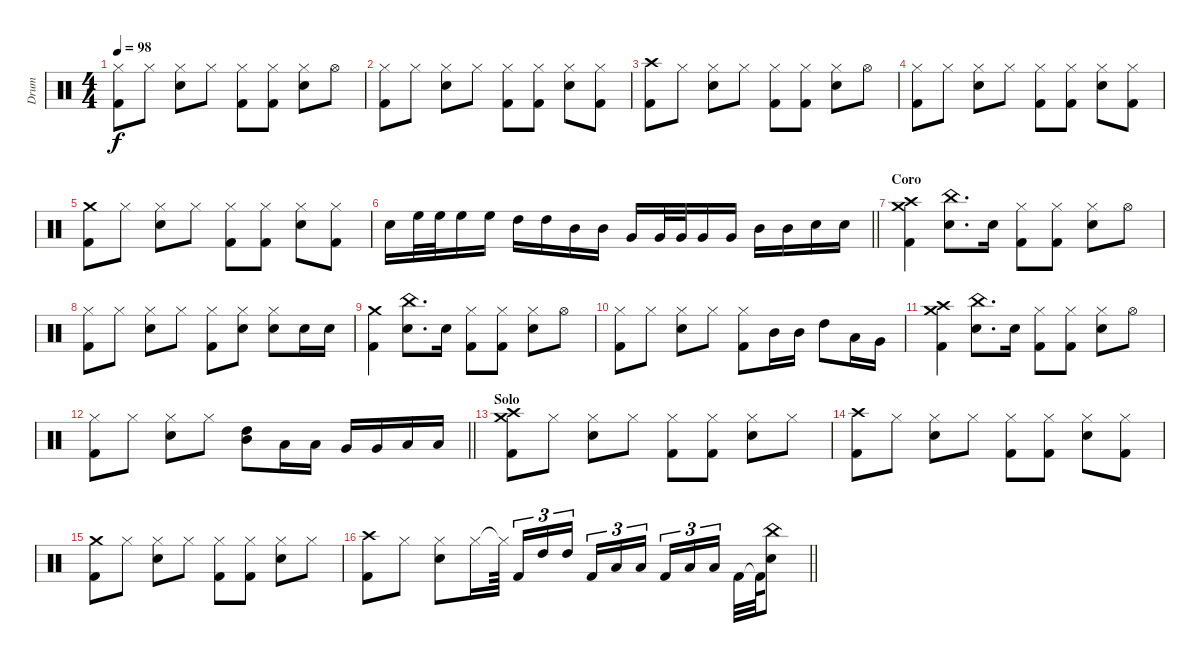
\track ("Drum" "Drum") {instrument percussion}
\staff {score}
\articulation defaults
\ts (4 4)
\tempo 98
\clef neutral
\ks c
("Hi-Hat (closed)" "Kick (hit) 2").8{dy f} "Hi-Hat (closed)".8 ("Hi-Hat (closed)" "Snare (hit) 2").8 "Hi-Hat (closed)".8 ("Hi-Hat (closed)" "Kick (hit) 2").8 ("Hi-Hat (closed)" "Kick (hit) 2").8 ("Hi-Hat (closed)" "Snare (hit) 2").8 "Hi-Hat (open)".8 |
("Hi-Hat (closed)" "Kick (hit) 2").8 "Hi-Hat (closed)".8 ("Hi-Hat (closed)" "Snare (hit) 2").8 "Hi-Hat (closed)".8 ("Hi-Hat (closed)" "Kick (hit) 2").8 ("Hi-Hat (closed)" "Kick (hit) 2").8 ("Hi-Hat (closed)" "Snare (hit) 2").8 ("Hi-Hat (closed)" "Kick (hit) 2").8 |
("Crash high (hit)" "Kick (hit) 2").8 "Hi-Hat (closed)".8 ("Hi-Hat (closed)" "Snare (hit) 2").8 "Hi-Hat (closed)".8 ("Hi-Hat (closed)" "Kick (hit) 2").8 ("Hi-Hat (closed)" "Kick (hit) 2").8 ("Hi-Hat (closed)" "Snare (hit) 2").8 "Hi-Hat (open)".8 |
("Hi-Hat (closed)" "Kick (hit) 2").8 "Hi-Hat (closed)".8 ("Hi-Hat (closed)" "Snare (hit) 2").8 "Hi-Hat (closed)".8 ("Hi-Hat (closed)" "Kick (hit) 2").8 ("Hi-Hat (closed)" "Kick (hit) 2").8 ("Hi-Hat (closed)" "Snare (hit) 2").8 ("Hi-Hat (closed)" "Kick (hit) 2").8 |
("Crash medium (hit)" "Kick (hit) 2").8 "Hi-Hat (closed)".8 ("Hi-Hat (closed)" "Snare (hit) 2").8 "Hi-Hat (closed)".8 ("Hi-Hat (closed)" "Kick (hit) 2").8 ("Hi-Hat (closed)" "Kick (hit) 2").8 ("Hi-Hat (closed)" "Snare (hit) 2").8 ("Hi-Hat (closed)" "Kick (hit) 2").8 |
\barLineRight lightlight "Snare (hit) 2".16 "High Floor Tom (hit)".32 "High Floor Tom (hit)".32 "High Floor Tom (hit)".16 "High Floor Tom (hit)".16 "High Tom (hit)".16 "High Tom (hit)".16 "Mid Tom (hit)".16 "Mid Tom (hit)".16 "Very Low Tom (hit)".16 "Very Low Tom (hit)".32 "Very Low Tom (hit)".32 "Very Low Tom (hit)".16 "Very Low Tom (hit)".16 "Mid Tom (hit)".16 "Mid Tom (hit)".16 "Snare (hit) 2".16 "Snare (hit) 2".16
|
\section ("" "Coro")
("Crash medium (hit)" "Crash high (hit)" "Kick (hit) 2").4 ("China (hit)" "Snare (hit) 2").8{d} "Snare (hit) 2".16 ("Hi-Hat (closed)" "Kick (hit) 2").8 ("Hi-Hat (closed)" "Kick (hit) 2").8 ("Hi-Hat (closed)" "Snare (hit) 2").8 "Hi-Hat (open)".8 |
("Hi-Hat (closed)" "Kick (hit) 2").8 "Hi-Hat (closed)".8 ("Hi-Hat (closed)" "Snare (hit) 2").8 "Hi-Hat (closed)".8 ("Hi-Hat (closed)" "Kick (hit) 2").8 ("Hi-Hat (closed)" "Snare (hit) 2").8 ("Hi-Hat (closed)" "Snare (hit) 2").8 "Snare (hit) 2".16 "Snare (hit) 2".16 |
("Crash medium (hit)" "Kick (hit) 2").4 ("China (hit)" "Snare (hit) 2").8{d} "Snare (hit) 2".16 ("Hi-Hat (closed)" "Kick (hit) 2").8 ("Hi-Hat (closed)" "Kick (hit) 2").8 ("Hi-Hat (closed)" "Snare (hit) 2").8 "Hi-Hat (open)".8 |
("Hi-Hat (closed)" "Kick (hit) 2").8 "Hi-Hat (closed)".8 ("Hi-Hat (closed)" "Snare (hit) 2").8 "Hi-Hat (closed)".8 ("Hi-Hat (closed)" "Kick (hit) 2").8 "Mid Tom (hit)".16 "Mid Tom (hit)".16 "High Tom (hit)".8 "Low Tom (hit)".16 "Very Low Tom (hit)".16 |
("Crash medium (hit)" "Crash high (hit)" "Kick (hit) 2").4 ("China (hit)" "Snare (hit) 2").8{d} "Snare (hit) 2".16 ("Hi-Hat (closed)" "Kick (hit) 2").8 ("Hi-Hat (closed)" "Kick (hit) 2").8 ("Hi-Hat (closed)" "Snare (hit) 2").8 "Hi-Hat (open)".8 |
\barLineRight lightlight
("Hi-Hat (closed)" "Kick (hit) 2").8 "Hi-Hat (closed)".8 ("Hi-Hat (closed)" "Snare (hit) 2").8 "Hi-Hat (closed)".8 ("High Tom (hit)" "Mid Tom (hit)").8 "Low Tom (hit)".16 "Low Tom (hit)".16 "Very Low Tom (hit)".16 "Very Low Tom (hit)".16 "Low Floor Tom (hit)".16 "Low Floor Tom (hit)".16 |
\section ("" "Solo")
("Crash medium (hit)" "Crash high (hit)" "Kick (hit) 2").8 "Hi-Hat (closed)".8 ("Hi-Hat (closed)" "Snare (hit) 2").8 "Hi-Hat (closed)".8 ("Hi-Hat (closed)" "Kick (hit) 2").8 ("Hi-Hat (closed)" "Kick (hit) 2").8 ("Hi-Hat (closed)" "Snare (hit) 2").8 "Hi-Hat (closed)".8 |
("Crash high (hit)" "Kick (hit) 2").8 "Hi-Hat (closed)".8 ("Hi-Hat (closed)" "Snare (hit) 2").8 "Hi-Hat (closed)".8 ("Hi-Hat (closed)" "Kick (hit) 2").8 ("Hi-Hat (closed)" "Kick (hit) 2").8 ("Hi-Hat (closed)" "Snare (hit) 2").8 ("Hi-Hat (closed)" "Kick (hit) 2").8 |
("Crash medium (hit)" "Kick (hit) 2").8 "Hi-Hat (closed)".8 ("Hi-Hat (closed)" "Snare (hit) 2").8 "Hi-Hat (closed)".8 ("Hi-Hat (closed)" "Kick (hit) 2").8 ("Hi-Hat (closed)" "Kick (hit) 2").8 ("Hi-Hat (closed)" "Snare (hit) 2").8 "Hi-Hat (closed)".8 |
\barLineRight lightlight
("Crash high (hit)" "Kick (hit) 2").8 "Hi-Hat (closed)".8 ("Hi-Hat (closed)" "Snare (hit) 2").8 "Hi-Hat (closed)".16 "Hi-Hat (closed)"{t}.64{beam splitsecondary} "Kick (hit) 2".16{tu (3 2)} "High Tom (hit)".16{tu (3 2)} "High Tom (hit)".16{tu (3 2) beam splitsecondary} "Kick (hit) 2".16{tu (3 2)} "Low Tom (hit)".16{tu (3 2)} "Low Tom (hit)".16{tu (3 2) beam splitsecondary} "Kick (hit) 2".16{tu (3 2)} "Low Floor Tom (hit)".16{tu (3 2)} "Low Floor Tom (hit)".16{tu (3 2) beam splitsecondary} "Kick (hit) 2".32 "Kick (hit) 2"{t}.64 ("China (hit)" "Snare (hit) 2").8
